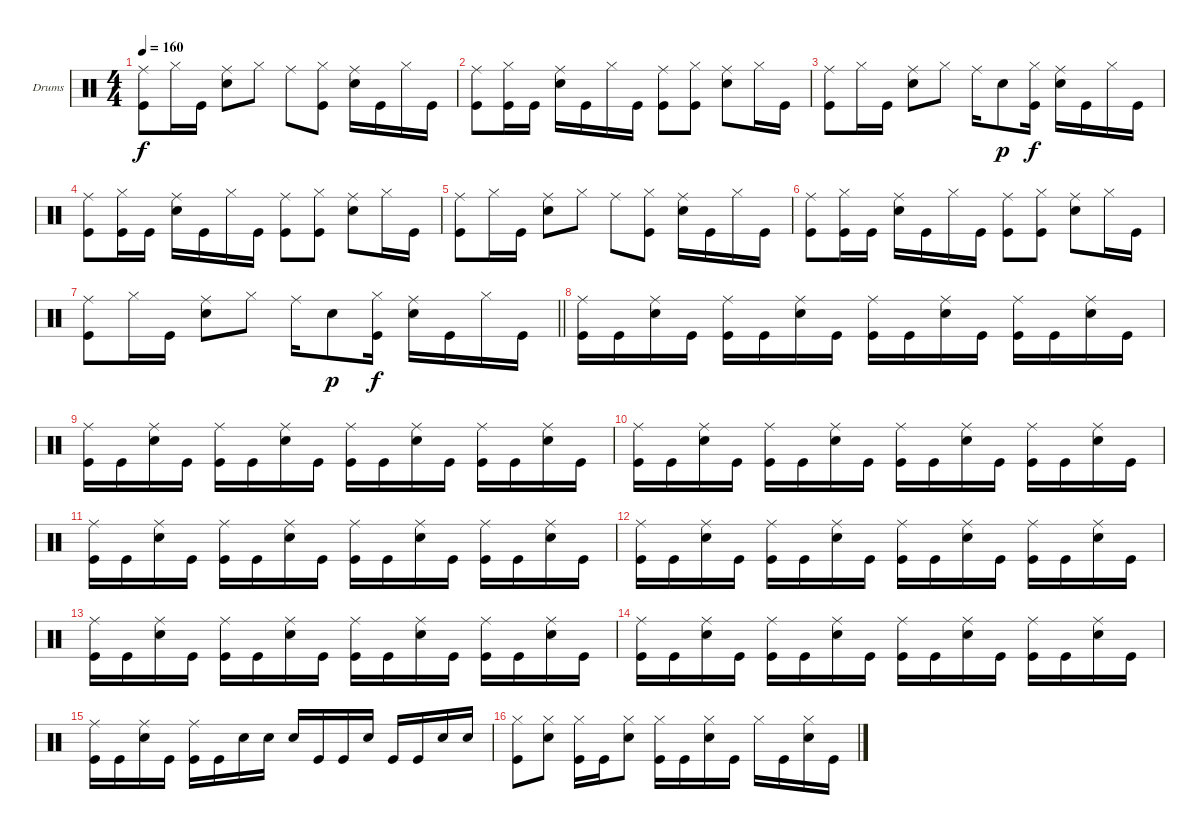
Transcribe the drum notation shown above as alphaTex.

\defaultSystemsLayout 4
\bracketExtendMode groupsimilarinstruments
\firstSystemTrackNameOrientation horizontal
\otherSystemsTrackNameOrientation horizontal
\track ("Drums" "Drums") {instrument percussion}
\staff {score}
\articulation defaults
\ts (4 4)
\tempo 160
\clef neutral
\scale
0.333333
\ks aminor
("Kick (hit)" "Ride (middle)").8{dy f} "Hi-Hat (closed)".16 "Kick (hit)".16 ("Snare (hit) 2" "Ride (middle)").8 "Hi-Hat (closed)".8 "Ride (middle)".8 ("Kick (hit)" "Hi-Hat (closed)").8 ("Snare (hit) 2" "Ride (middle)").16 "Kick (hit)".16 "Hi-Hat (closed)".16 "Kick (hit)".16 |
("Kick (hit)" "Ride (middle)").8 ("Kick (hit)" "Hi-Hat (closed)").16 "Kick (hit)".16 ("Snare (hit) 2" "Ride (middle)").16 "Kick (hit)".16 "Hi-Hat (closed)".16 "Kick (hit)".16 ("Kick (hit)" "Ride (middle)").8 ("Kick (hit)" "Hi-Hat (closed)").8 ("Snare (hit) 2" "Ride (middle)").8 "Hi-Hat (closed)".16 "Kick (hit)".16 |
\scale
0.333333 ("Kick (hit)" "Ride (middle)").8 "Hi-Hat (closed)".16 "Kick (hit)".16 ("Snare (hit) 2" "Ride (middle)").8 "Hi-Hat (closed)".8 "Ride (middle)".16 "Snare (hit) 2".8{dy p} ("Kick (hit)" "Hi-Hat (closed)").16{dy f} ("Snare (hit) 2" "Ride (middle)").16 "Kick (hit)".16 "Hi-Hat (closed)".16 "Kick (hit)".16 |
\scale
0.333333 ("Kick (hit)" "Ride (middle)").8 ("Kick (hit)" "Hi-Hat (closed)").16 "Kick (hit)".16 ("Snare (hit) 2" "Ride (middle)").16 "Kick (hit)".16 "Hi-Hat (closed)".16 "Kick (hit)".16 ("Kick (hit)" "Ride (middle)").8 ("Kick (hit)" "Hi-Hat (closed)").8 ("Snare (hit) 2" "Ride (middle)").8 "Hi-Hat (closed)".16 "Kick (hit)".16 |
\scale
0.333333 ("Kick (hit)" "Ride (middle)").8 "Hi-Hat (closed)".16 "Kick (hit)".16 ("Snare (hit) 2" "Ride (middle)").8 "Hi-Hat (closed)".8 "Ride (middle)".8 ("Kick (hit)" "Hi-Hat (closed)").8 ("Snare (hit) 2" "Ride (middle)").16 "Kick (hit)".16 "Hi-Hat (closed)".16 "Kick (hit)".16 |
\scale
0.333333 ("Kick (hit)" "Ride (middle)").8 ("Kick (hit)" "Hi-Hat (closed)").16 "Kick (hit)".16 ("Snare (hit) 2" "Ride (middle)").16 "Kick (hit)".16 "Hi-Hat (closed)".16 "Kick (hit)".16 ("Kick (hit)" "Ride (middle)").8 ("Kick (hit)" "Hi-Hat (closed)").8 ("Snare (hit) 2" "Ride (middle)").8 "Hi-Hat (closed)".16 "Kick (hit)".16 |
\scale
0.333333
\barLineRight lightlight
("Kick (hit)" "Ride (middle)").8 "Hi-Hat (closed)".16 "Kick (hit)".16 ("Snare (hit) 2" "Ride (middle)").8 "Hi-Hat (closed)".8 "Ride (middle)".16 "Snare (hit) 2".8{dy p} ("Kick (hit)" "Hi-Hat (closed)").16{dy f} ("Snare (hit) 2" "Ride (middle)").16 "Kick (hit)".16 "Hi-Hat (closed)".16 "Kick (hit)".16 |
\scale
0.333333 ("Kick (hit)" "Ride (middle)").16 "Kick (hit)".16 ("Snare (hit) 2" "Ride (middle)").16 "Kick (hit)".16 ("Kick (hit)" "Ride (middle)").16 "Kick (hit)".16 ("Snare (hit) 2" "Ride (middle)").16 "Kick (hit)".16 ("Kick (hit)" "Ride (middle)").16 "Kick (hit)".16 ("Snare (hit) 2" "Ride (middle)").16 "Kick (hit)".16 ("Kick (hit)" "Ride (middle)").16 "Kick (hit)".16 ("Snare (hit) 2" "Ride (middle)").16 "Kick (hit)".16 |
\scale
0.333333 ("Kick (hit)" "Ride (middle)").16 "Kick (hit)".16 ("Snare (hit) 2" "Ride (middle)").16 "Kick (hit)".16 ("Kick (hit)" "Ride (middle)").16 "Kick (hit)".16 ("Snare (hit) 2" "Ride (middle)").16 "Kick (hit)".16 ("Kick (hit)" "Ride (middle)").16 "Kick (hit)".16 ("Snare (hit) 2" "Ride (middle)").16 "Kick (hit)".16 ("Kick (hit)" "Ride (middle)").16 "Kick (hit)".16 ("Snare (hit) 2" "Ride (middle)").16 "Kick (hit)".16 |
\scale
0.333333 ("Kick (hit)" "Ride (middle)").16 "Kick (hit)".16 ("Snare (hit) 2" "Ride (middle)").16 "Kick (hit)".16 ("Kick (hit)" "Ride (middle)").16 "Kick (hit)".16 ("Snare (hit) 2" "Ride (middle)").16 "Kick (hit)".16 ("Kick (hit)" "Ride (middle)").16 "Kick (hit)".16 ("Snare (hit) 2" "Ride (middle)").16 "Kick (hit)".16 ("Kick (hit)" "Ride (middle)").16 "Kick (hit)".16 ("Snare (hit) 2" "Ride (middle)").16 "Kick (hit)".16 |
\scale
0.333333 ("Kick (hit)" "Ride (middle)").16 "Kick (hit)".16 ("Snare (hit) 2" "Ride (middle)").16 "Kick (hit)".16 ("Kick (hit)" "Ride (middle)").16 "Kick (hit)".16 ("Snare (hit) 2" "Ride (middle)").16 "Kick (hit)".16 ("Kick (hit)" "Ride (middle)").16 "Kick (hit)".16 ("Snare (hit) 2" "Ride (middle)").16 "Kick (hit)".16 ("Kick (hit)" "Ride (middle)").16 "Kick (hit)".16 ("Snare (hit) 2" "Ride (middle)").16 "Kick (hit)".16 |
\scale
0.333333 ("Kick (hit)" "Ride (middle)").16 "Kick (hit)".16 ("Snare (hit) 2" "Ride (middle)").16 "Kick (hit)".16 ("Kick (hit)" "Ride (middle)").16 "Kick (hit)".16 ("Snare (hit) 2" "Ride (middle)").16 "Kick (hit)".16 ("Kick (hit)" "Ride (middle)").16 "Kick (hit)".16 ("Snare (hit) 2" "Ride (middle)").16 "Kick (hit)".16 ("Kick (hit)" "Ride (middle)").16 "Kick (hit)".16 ("Snare (hit) 2" "Ride (middle)").16 "Kick (hit)".16 |
\scale
0.333333 ("Kick (hit)" "Ride (middle)").16 "Kick (hit)".16 ("Snare (hit) 2" "Ride (middle)").16 "Kick (hit)".16 ("Kick (hit)" "Ride (middle)").16 "Kick (hit)".16 ("Snare (hit) 2" "Ride (middle)").16 "Kick (hit)".16 ("Kick (hit)" "Ride (middle)").16 "Kick (hit)".16 ("Snare (hit) 2" "Ride (middle)").16 "Kick (hit)".16 ("Kick (hit)" "Ride (middle)").16 "Kick (hit)".16 ("Snare (hit) 2" "Ride (middle)").16 "Kick (hit)".16 |
\scale
0.333333 ("Kick (hit)" "Ride (middle)").16 "Kick (hit)".16 ("Snare (hit) 2" "Ride (middle)").16 "Kick (hit)".16 ("Kick (hit)" "Ride (middle)").16 "Kick (hit)".16 ("Snare (hit) 2" "Ride (middle)").16 "Kick (hit)".16 ("Kick (hit)" "Ride (middle)").16 "Kick (hit)".16 ("Snare (hit) 2" "Ride (middle)").16 "Kick (hit)".16 ("Kick (hit)" "Ride (middle)").16 "Kick (hit)".16 ("Snare (hit) 2" "Ride (middle)").16 "Kick (hit)".16 |
\scale
0.333333 ("Kick (hit)" "Ride (middle)").16 "Kick (hit)".16 ("Snare (hit) 2" "Ride (middle)").16 "Kick (hit)".16 ("Kick (hit)" "Ride (middle)").16 "Kick (hit)".16 "Snare (hit) 2".16 "Snare (hit) 2".16 "Snare (hit) 2".16 "Kick (hit)".16 "Kick (hit)".16 "Snare (hit) 2".16 "Kick (hit)".16 "Kick (hit)".16 "Snare (hit) 2".16 "Snare (hit) 2".16 |
\scale
0.333333 ("Kick (hit)" "Hi-Hat (closed)").8 ("Snare (hit) 2" "Hi-Hat (closed)").8 ("Kick (hit)" "Hi-Hat (closed)").16 "Kick (hit)".16 ("Snare (hit) 2" "Hi-Hat (closed)").8 ("Kick (hit)" "Hi-Hat (closed)").16 "Kick (hit)".16 ("Snare (hit) 2" "Hi-Hat (closed)").16 "Kick (hit)".16 "Hi-Hat (closed)".16 "Kick (hit)".16 ("Snare (hit) 2" "Hi-Hat (closed)").16 "Kick (hit)".16
